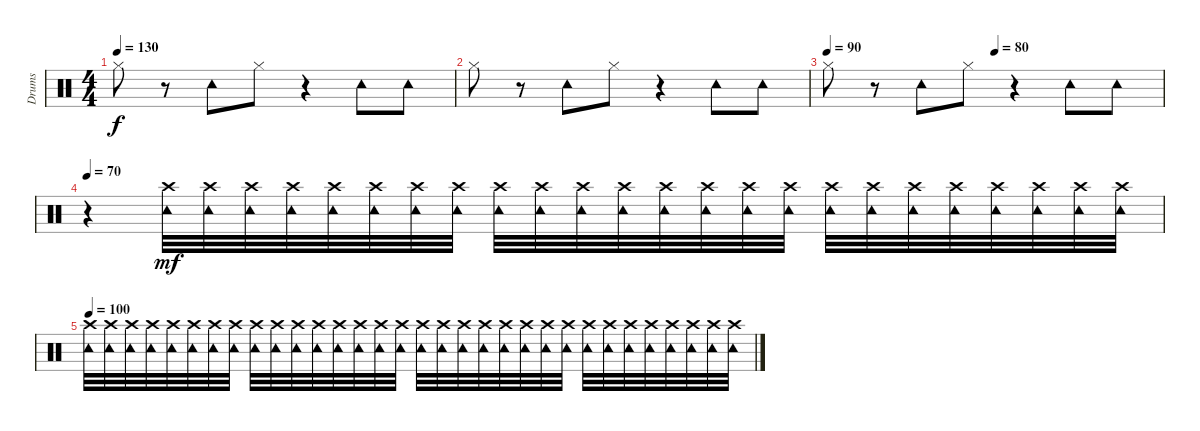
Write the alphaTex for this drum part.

\track ("Drums" "Drums") {instrument percussion}
\staff {score}
\articulation defaults
\ts (4 4)
\tempo 130
\clef neutral
\ks c "Hi-Hat (closed)".8{dy f}
r.8 "Tambourine (hit)".8 "Hi-Hat (closed)".8 r.4 "Tambourine (hit)".8 "Tambourine (hit)".8 |
"Hi-Hat (closed)".8 r.8 "Tambourine (hit)".8 "Hi-Hat (closed)".8 r.4 "Tambourine (hit)".8 "Tambourine (hit)".8 |
\tempo 90
\tempo (80 0.5)
"Hi-Hat (closed)".8 r.8 "Tambourine (hit)".8 "Hi-Hat (closed)".8 r.4 "Tambourine (hit)".8 "Tambourine (hit)".8 |
\tempo 70
r.4 ("Tambourine (hit)" "Crash high (hit)").32{dy mf} ("Crash high (hit)" "Tambourine (hit)").32 ("Crash high (hit)" "Tambourine (hit)").32 ("Crash high (hit)" "Tambourine (hit)").32 ("Crash high (hit)" "Tambourine (hit)").32 ("Crash high (hit)" "Tambourine (hit)").32 ("Crash high (hit)" "Tambourine (hit)").32 ("Crash high (hit)" "Tambourine (hit)").32 ("Crash high (hit)" "Tambourine (hit)").32 ("Crash high (hit)" "Tambourine (hit)").32 ("Crash high (hit)" "Tambourine (hit)").32 ("Crash high (hit)" "Tambourine (hit)").32 ("Crash high (hit)" "Tambourine (hit)").32 ("Crash high (hit)" "Tambourine (hit)").32 ("Crash high (hit)" "Tambourine (hit)").32 ("Crash high (hit)" "Tambourine (hit)").32 ("Crash high (hit)" "Tambourine (hit)").32 ("Crash high (hit)" "Tambourine (hit)").32 ("Crash high (hit)" "Tambourine (hit)").32 ("Crash high (hit)" "Tambourine (hit)").32 ("Crash high (hit)" "Tambourine (hit)").32 ("Crash high (hit)" "Tambourine (hit)").32 ("Crash high (hit)" "Tambourine (hit)").32 ("Crash high (hit)" "Tambourine (hit)").32 |
\tempo 100
("Crash high (hit)" "Tambourine (hit)").32 ("Crash high (hit)" "Tambourine (hit)").32 ("Crash high (hit)" "Tambourine (hit)").32 ("Crash high (hit)" "Tambourine (hit)").32 ("Crash high (hit)" "Tambourine (hit)").32 ("Crash high (hit)" "Tambourine (hit)").32 ("Crash high (hit)" "Tambourine (hit)").32 ("Crash high (hit)" "Tambourine (hit)").32 ("Crash high (hit)" "Tambourine (hit)").32 ("Crash high (hit)" "Tambourine (hit)").32 ("Crash high (hit)" "Tambourine (hit)").32 ("Crash high (hit)" "Tambourine (hit)").32 ("Crash high (hit)" "Tambourine (hit)").32 ("Crash high (hit)" "Tambourine (hit)").32 ("Crash high (hit)" "Tambourine (hit)").32 ("Crash high (hit)" "Tambourine (hit)").32 ("Crash high (hit)" "Tambourine (hit)").32 ("Crash high (hit)" "Tambourine (hit)").32 ("Crash high (hit)" "Tambourine (hit)").32 ("Crash high (hit)" "Tambourine (hit)").32 ("Crash high (hit)" "Tambourine (hit)").32 ("Crash high (hit)" "Tambourine (hit)").32 ("Crash high (hit)" "Tambourine (hit)").32 ("Crash high (hit)" "Tambourine (hit)").32 ("Crash high (hit)" "Tambourine (hit)").32 ("Crash high (hit)" "Tambourine (hit)").32 ("Crash high (hit)" "Tambourine (hit)").32 ("Crash high (hit)" "Tambourine (hit)").32 ("Crash high (hit)" "Tambourine (hit)").32 ("Crash high (hit)" "Tambourine (hit)").32 ("Crash high (hit)" "Tambourine (hit)").32 ("Crash high (hit)" "Tambourine (hit)").32
